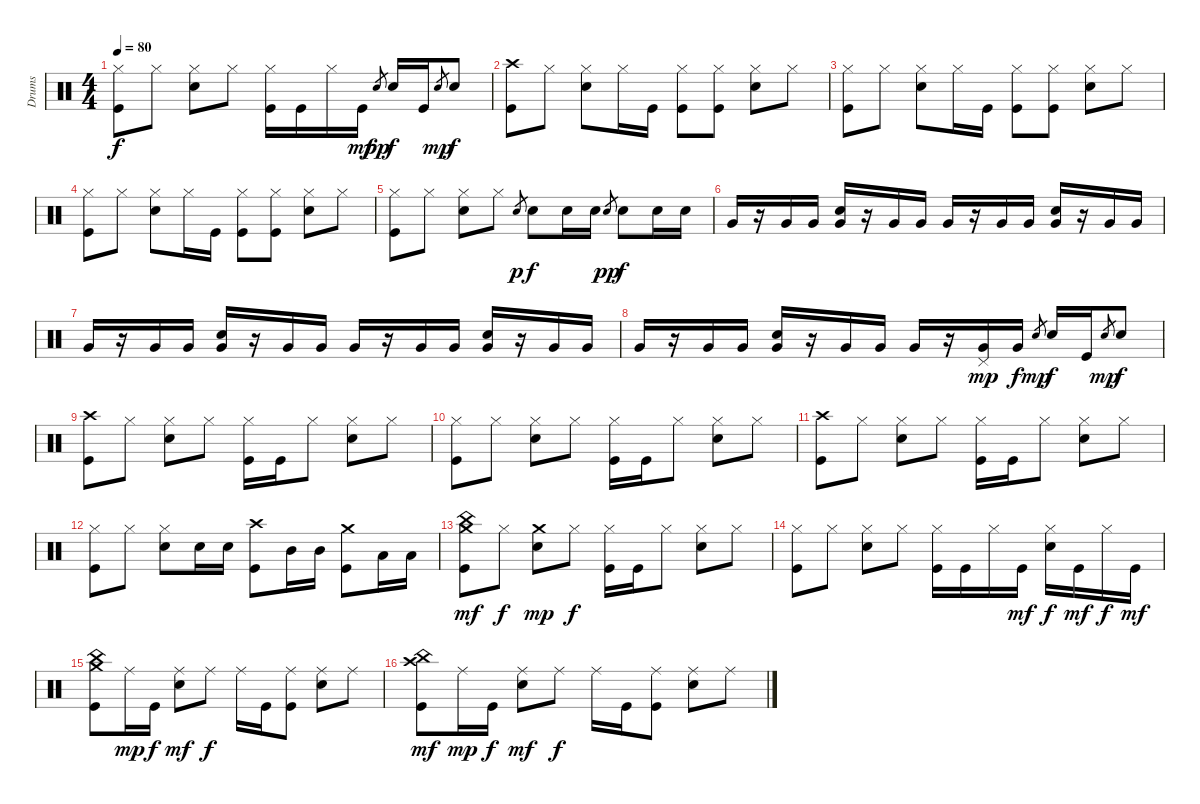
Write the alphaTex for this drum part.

\track ("Drums" "Drums") {instrument percussion}
\staff {score}
\articulation defaults
\ts (4 4)
\tempo 80
\clef neutral
\ks c
("Hi-Hat (closed)" "Kick (hit)").8{dy f} "Hi-Hat (closed)".8 ("Hi-Hat (closed)" "Snare (hit) 2").8 "Hi-Hat (closed)".8 ("Hi-Hat (closed)" "Kick (hit)").16 "Kick (hit)".16 "Hi-Hat (closed)".16 "Kick (hit)".16{dy mf} "Snare (hit) 2".8{gr dy pp} "Snare (hit) 2".16{dy f} "Kick (hit)".16 "Snare (hit) 2".8{gr dy mp} "Snare (hit) 2".8{dy f} |
("Crash high (hit)" "Kick (hit)").8 "Hi-Hat (closed)".8 ("Hi-Hat (closed)" "Snare (hit) 2").8 "Hi-Hat (closed)".16 "Kick (hit)".16 ("Hi-Hat (closed)" "Kick (hit)").8 ("Hi-Hat (closed)" "Kick (hit)").8 ("Hi-Hat (closed)" "Snare (hit) 2").8 "Hi-Hat (closed)".8 |
("Hi-Hat (closed)" "Kick (hit)").8 "Hi-Hat (closed)".8 ("Hi-Hat (closed)" "Snare (hit) 2").8 "Hi-Hat (closed)".16 "Kick (hit)".16 ("Hi-Hat (closed)" "Kick (hit)").8 ("Hi-Hat (closed)" "Kick (hit)").8 ("Hi-Hat (closed)" "Snare (hit) 2").8 "Hi-Hat (closed)".8 |
("Hi-Hat (closed)" "Kick (hit)").8 "Hi-Hat (closed)".8 ("Hi-Hat (closed)" "Snare (hit) 2").8 "Hi-Hat (closed)".16 "Kick (hit)".16 ("Hi-Hat (closed)" "Kick (hit)").8 ("Hi-Hat (closed)" "Kick (hit)").8 ("Hi-Hat (closed)" "Snare (hit) 2").8 "Hi-Hat (closed)".8 |
("Hi-Hat (closed)" "Kick (hit)").8 "Hi-Hat (closed)".8 ("Hi-Hat (closed)" "Snare (hit) 2").8 "Hi-Hat (closed)".8 "Snare (hit) 2".8{gr dy p} "Snare (hit) 2".8{dy f} "Snare (hit) 2".16 "Snare (hit) 2".16 "Snare (hit) 2".8{gr dy pp} "Snare (hit) 2".8{dy f} "Snare (hit) 2".16 "Snare (hit) 2".16 |
"Very Low Tom (hit)".16 r.16 "Very Low Tom (hit)".16 "Very Low Tom (hit)".16 ("Snare (hit) 2" "Very Low Tom (hit)").16 r.16 "Very Low Tom (hit)".16 "Very Low Tom (hit)".16 "Very Low Tom (hit)".16 r.16 "Very Low Tom (hit)".16 "Very Low Tom (hit)".16 ("Snare (hit) 2" "Very Low Tom (hit)").16 r.16 "Very Low Tom (hit)".16 "Very Low Tom (hit)".16 |
"Very Low Tom (hit)".16 r.16 "Very Low Tom (hit)".16 "Very Low Tom (hit)".16 ("Snare (hit) 2" "Very Low Tom (hit)").16 r.16 "Very Low Tom (hit)".16 "Very Low Tom (hit)".16 "Very Low Tom (hit)".16 r.16 "Very Low Tom (hit)".16 "Very Low Tom (hit)".16 ("Snare (hit) 2" "Very Low Tom (hit)").16 r.16 "Very Low Tom (hit)".16 "Very Low Tom (hit)".16 |
"Very Low Tom (hit)".16 r.16 "Very Low Tom (hit)".16 "Very Low Tom (hit)".16 ("Snare (hit) 2" "Very Low Tom (hit)").16 r.16 "Very Low Tom (hit)".16 "Very Low Tom (hit)".16 "Very Low Tom (hit)".16 r.16 ("Pedal Hi-Hat (hit)" "Very Low Tom (hit)").16{dy mp} "Very Low Tom (hit)".16{dy f} "Snare (hit) 2".8{gr dy mp} "Snare (hit) 2".16{dy f} "Kick (hit)".16 "Snare (hit) 2".8{gr dy mp} "Snare (hit) 2".8{dy f} |
("Crash high (hit)" "Kick (hit)").8 "Hi-Hat (closed)".8 ("Hi-Hat (closed)" "Snare (hit) 2").8 "Hi-Hat (closed)".8 ("Hi-Hat (closed)" "Kick (hit)").16 "Kick (hit)".16 "Hi-Hat (closed)".8 ("Hi-Hat (closed)" "Snare (hit) 2").8 "Hi-Hat (closed)".8 |
("Hi-Hat (closed)" "Kick (hit)").8 "Hi-Hat (closed)".8 ("Hi-Hat (closed)" "Snare (hit) 2").8 "Hi-Hat (closed)".8 ("Hi-Hat (closed)" "Kick (hit)").16 "Kick (hit)".16 "Hi-Hat (closed)".8 ("Hi-Hat (closed)" "Snare (hit) 2").8 "Hi-Hat (closed)".8 |
("Crash high (hit)" "Kick (hit)").8 "Hi-Hat (closed)".8 ("Hi-Hat (closed)" "Snare (hit) 2").8 "Hi-Hat (closed)".8 ("Hi-Hat (closed)" "Kick (hit)").16 "Kick (hit)".16 "Hi-Hat (closed)".8 ("Hi-Hat (closed)" "Snare (hit) 2").8 "Hi-Hat (closed)".8 |
("Hi-Hat (closed)" "Kick (hit)").8 "Hi-Hat (closed)".8 ("Hi-Hat (closed)" "Snare (hit) 2").8 "Snare (hit) 2".16 "Snare (hit) 2".16 ("Crash high (hit)" "Kick (hit)").8 "Mid Tom (hit)".16 "Mid Tom (hit)".16 ("Crash medium (hit)" "Kick (hit)").8 "Low Tom (hit)".16 "Low Tom (hit)".16 |
("China (hit)" "Crash medium (hit)" "Kick (hit)").8{dy mf} "Hi-Hat (closed)".8{dy f} ("Crash medium (hit)" "Snare (hit) 2").8{dy mp} "Hi-Hat (closed)".8{dy f} ("Hi-Hat (closed)" "Kick (hit)").16 "Kick (hit)".16 "Hi-Hat (closed)".8 ("Hi-Hat (closed)" "Snare (hit) 2").8 "Hi-Hat (closed)".8 |
("Hi-Hat (closed)" "Kick (hit)").8 "Hi-Hat (closed)".8 ("Hi-Hat (closed)" "Snare (hit) 2").8 "Hi-Hat (closed)".8 ("Hi-Hat (closed)" "Kick (hit)").16 "Kick (hit)".16 "Hi-Hat (closed)".16 "Kick (hit)".16{dy mf} ("Hi-Hat (closed)" "Snare (hit) 2").16{dy f} "Kick (hit)".16{dy mf} "Hi-Hat (closed)".16{dy f} "Kick (hit)".16{dy mf} |
("China (hit)" "Crash medium (hit)" "Kick (hit)").8 "Ride (middle)".16{dy mp} "Kick (hit)".16{dy f} ("Ride (middle)" "Snare (hit) 2").8{dy mf} "Ride (middle)".8{dy f} "Ride (middle)".16 "Kick (hit)".16 ("Ride (middle)" "Kick (hit)").8 ("Ride (middle)" "Snare (hit) 2").8 "Ride (middle)".8 |
("China (hit)" "Crash high (hit)" "Kick (hit)").8{dy mf} "Ride (middle)".16{dy mp} "Kick (hit)".16{dy f} ("Ride (middle)" "Snare (hit) 2").8{dy mf} "Ride (middle)".8{dy f} "Ride (middle)".16 "Kick (hit)".16 ("Ride (middle)" "Kick (hit)").8 ("Ride (middle)" "Snare (hit) 2").8 "Ride (middle)".8
